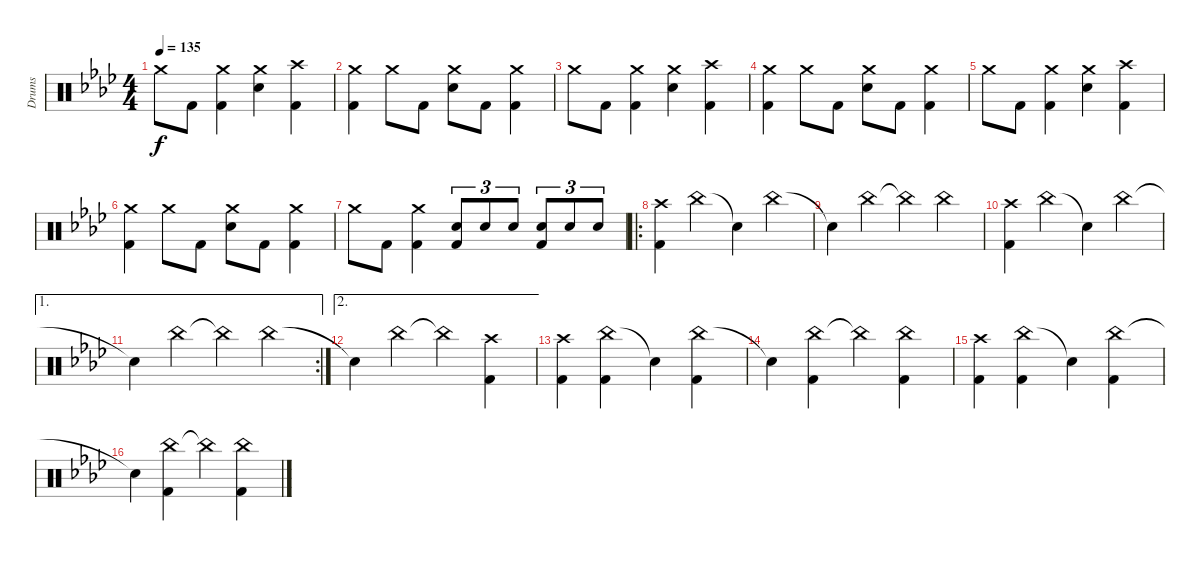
\track ("Drums" "Drums") {instrument percussion}
\staff {score}
\articulation defaults
\ts (4 4)
\tempo 135
\clef neutral
\ks ab "Crash medium (hit)".8{dy f} "Kick (hit) 2".8
("Crash medium (hit)" "Kick (hit) 2").4 ("Crash medium (hit)" "Electric Snare (hit)").4 ("Crash high (hit)" "Kick (hit) 2").4 |
("Crash medium (hit)" "Kick (hit) 2").4 "Crash medium (hit)".8 "Kick (hit) 2".8 ("Crash medium (hit)" "Electric Snare (hit)").8 "Kick (hit) 2".8 ("Crash medium (hit)" "Kick (hit) 2").4 |
"Crash medium (hit)".8 "Kick (hit) 2".8 ("Crash medium (hit)" "Kick (hit) 2").4 ("Crash medium (hit)" "Electric Snare (hit)").4 ("Crash high (hit)" "Kick (hit) 2").4 |
("Crash medium (hit)" "Kick (hit) 2").4 "Crash medium (hit)".8 "Kick (hit) 2".8 ("Crash medium (hit)" "Electric Snare (hit)").8 "Kick (hit) 2".8 ("Crash medium (hit)" "Kick (hit) 2").4 |
"Crash medium (hit)".8 "Kick (hit) 2".8 ("Crash medium (hit)" "Kick (hit) 2").4 ("Crash medium (hit)" "Electric Snare (hit)").4 ("Crash high (hit)" "Kick (hit) 2").4 |
("Crash medium (hit)" "Kick (hit) 2").4 "Crash medium (hit)".8 "Kick (hit) 2".8 ("Crash medium (hit)" "Electric Snare (hit)").8 "Kick (hit) 2".8 ("Crash medium (hit)" "Kick (hit) 2").4 |
"Crash medium (hit)".8 "Kick (hit) 2".8 ("Crash medium (hit)" "Kick (hit) 2").4 ("Electric Snare (hit)" "Kick (hit) 2").8{tu (3 2)} "Electric Snare (hit)".8{tu (3 2)} "Electric Snare (hit)".8{tu (3 2)} ("Electric Snare (hit)" "Kick (hit) 2").8{tu (3 2)} "Electric Snare (hit)".8{tu (3 2)} "Electric Snare (hit)".8{tu (3 2)} |
\ro
("Crash high (hit)" "Kick (hit) 2").4 "China (hit)".4 "Snare (hit)"{t}.4 "China (hit)".4 |
"Snare (hit)"{t}.4 "China (hit)".4 "China (hit)"{t}.4 "China (hit)".4 |
("Crash high (hit)" "Kick (hit) 2").4 "China (hit)".4 "Snare (hit)"{t}.4 "China (hit)".4 |
\ae 1
\rc 2 "Snare (hit)"{t}.4 "China (hit)".4 "China (hit)"{t}.4 "China (hit)".4
|
\ae 2 "Snare (hit)"{t}.4 "China (hit)".4 "China (hit)"{t}.4
("Crash high (hit)" "Kick (hit) 2").4 |
("Crash high (hit)" "Kick (hit) 2").4 ("China (hit)" "Kick (hit) 2").4 "Snare (hit)"{t}.4 ("China (hit)" "Kick (hit) 2").4 |
"Snare (hit)"{t}.4 ("China (hit)" "Kick (hit) 2").4 "China (hit)"{t}.4 ("China (hit)" "Kick (hit) 2").4 |
("Crash high (hit)" "Kick (hit) 2").4 ("China (hit)" "Kick (hit) 2").4 "Snare (hit)"{t}.4 ("China (hit)" "Kick (hit) 2").4 |
"Snare (hit)"{t}.4 ("China (hit)" "Kick (hit) 2").4 "China (hit)"{t}.4 ("China (hit)" "Kick (hit) 2").4
